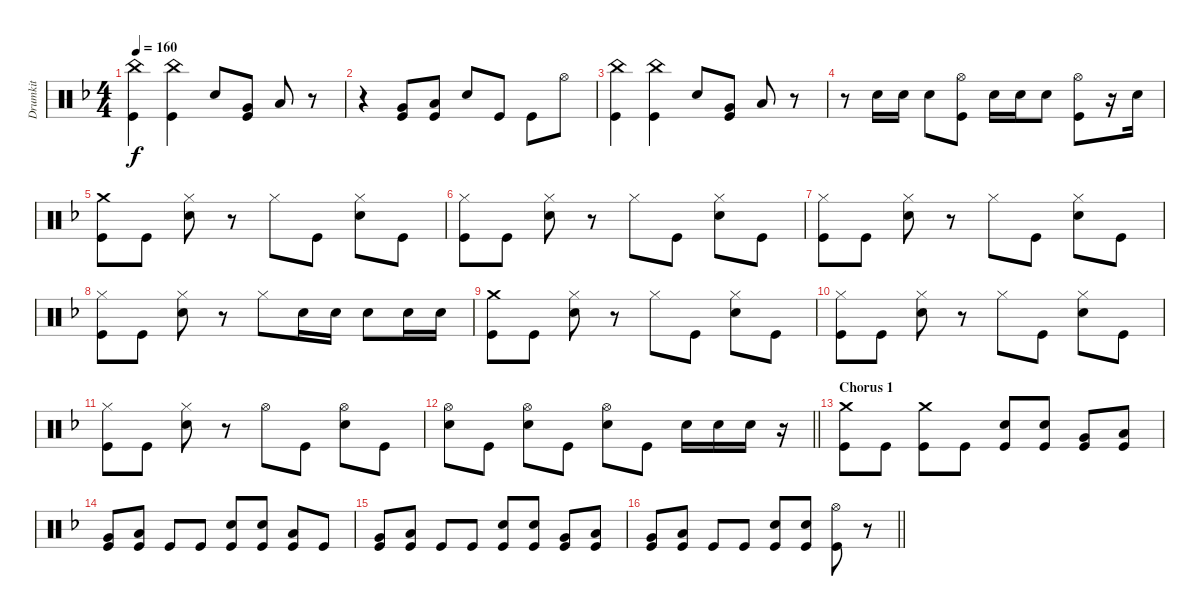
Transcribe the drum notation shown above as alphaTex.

\track ("Drumkit" "Drumkit") {instrument percussion}
\staff {score}
\articulation defaults
\ts (4 4)
\tempo 160
\clef neutral
\ks dminor
("China (hit)" "Kick (hit)").4{dy f} ("China (hit)" "Kick (hit)").4 "Snare (hit) 2".8 ("Very Low Tom (hit)" "Kick (hit)").8 "Low Tom (hit)".8 r.8 |
r.4 ("Very Low Tom (hit)" "Kick (hit)").8 ("Low Floor Tom (hit)" "Kick (hit)").8 "Snare (hit) 2".8 "Kick (hit)".8 "Kick (hit)".8 "Hi-Hat (open)".8 |
("China (hit)" "Kick (hit)").4 ("China (hit)" "Kick (hit)").4 "Snare (hit) 2".8 ("Very Low Tom (hit)" "Kick (hit)").8 "Low Tom (hit)".8 r.8 |
r.8 "Snare (hit) 2".16 "Snare (hit) 2".16 "Snare (hit) 2".8 ("Hi-Hat (open)" "Kick (hit)").8 "Snare (hit) 2".16 "Snare (hit) 2".16 "Snare (hit) 2".8 ("Hi-Hat (open)" "Kick (hit)").8 r.16 "Snare (hit) 2".16 |
("Crash medium (hit)" "Kick (hit)").8 "Kick (hit)".8 ("Hi-Hat (closed)" "Snare (hit) 2").8 r.8 "Hi-Hat (closed)".8 "Kick (hit)".8 ("Hi-Hat (closed)" "Snare (hit) 2").8 "Kick (hit)".8 |
("Hi-Hat (closed)" "Kick (hit)").8 "Kick (hit)".8 ("Hi-Hat (closed)" "Snare (hit) 2").8 r.8 "Hi-Hat (closed)".8 "Kick (hit)".8 ("Hi-Hat (closed)" "Snare (hit) 2").8 "Kick (hit)".8 |
("Hi-Hat (closed)" "Kick (hit)").8 "Kick (hit)".8 ("Hi-Hat (closed)" "Snare (hit) 2").8 r.8 "Hi-Hat (closed)".8 "Kick (hit)".8 ("Hi-Hat (closed)" "Snare (hit) 2").8 "Kick (hit)".8 |
("Hi-Hat (closed)" "Kick (hit)").8 "Kick (hit)".8 ("Hi-Hat (closed)" "Snare (hit) 2").8 r.8 "Hi-Hat (closed)".8 "Snare (hit) 2".16 "Snare (hit) 2".16 "Snare (hit) 2".8 "Snare (hit) 2".16 "Snare (hit) 2".16 |
("Crash medium (hit)" "Kick (hit)").8 "Kick (hit)".8 ("Hi-Hat (closed)" "Snare (hit) 2").8 r.8 "Hi-Hat (closed)".8 "Kick (hit)".8 ("Hi-Hat (closed)" "Snare (hit) 2").8 "Kick (hit)".8 |
("Hi-Hat (closed)" "Kick (hit)").8 "Kick (hit)".8 ("Hi-Hat (closed)" "Snare (hit) 2").8 r.8 "Hi-Hat (closed)".8 "Kick (hit)".8 ("Hi-Hat (closed)" "Snare (hit) 2").8 "Kick (hit)".8 |
("Hi-Hat (closed)" "Kick (hit)").8 "Kick (hit)".8 ("Hi-Hat (closed)" "Snare (hit) 2").8 r.8 "Hi-Hat (open)".8 "Kick (hit)".8 ("Hi-Hat (open)" "Snare (hit) 2").8 "Kick (hit)".8 |
\barLineRight lightlight
("Hi-Hat (open)" "Snare (hit) 2").8 "Kick (hit)".8 ("Hi-Hat (open)" "Snare (hit) 2").8 "Kick (hit)".8 ("Hi-Hat (open)" "Snare (hit) 2").8 "Kick (hit)".8 "Snare (hit) 2".16 "Snare (hit) 2".16 "Snare (hit) 2".16 r.16 |
\section ("" "Chorus 1")
("Crash medium (hit)" "Kick (hit)").8 "Kick (hit)".8 ("Crash medium (hit)" "Kick (hit)").8 "Kick (hit)".8 ("Snare (hit) 2" "Kick (hit)").8 ("Snare (hit) 2" "Kick (hit)").8 ("Very Low Tom (hit)" "Kick (hit)").8 ("Low Floor Tom (hit)" "Kick (hit)").8 |
("Very Low Tom (hit)" "Kick (hit)").8 ("Low Floor Tom (hit)" "Kick (hit)").8 "Kick (hit)".8 "Kick (hit)".8 ("Snare (hit) 2" "Kick (hit)").8 ("Snare (hit) 2" "Kick (hit)").8 ("Low Floor Tom (hit)" "Kick (hit)").8 "Kick (hit)".8 |
("Very Low Tom (hit)" "Kick (hit)").8 ("Low Floor Tom (hit)" "Kick (hit)").8 "Kick (hit)".8 "Kick (hit)".8 ("Snare (hit) 2" "Kick (hit)").8 ("Snare (hit) 2" "Kick (hit)").8 ("Very Low Tom (hit)" "Kick (hit)").8 ("Low Floor Tom (hit)" "Kick (hit)").8 |
\barLineRight lightlight
("Very Low Tom (hit)" "Kick (hit)").8 ("Low Floor Tom (hit)" "Kick (hit)").8 "Kick (hit)".8 "Kick (hit)".8 ("Snare (hit) 2" "Kick (hit)").8 ("Snare (hit) 2" "Kick (hit)").8 ("Hi-Hat (open)" "Kick (hit)").8 r.8
